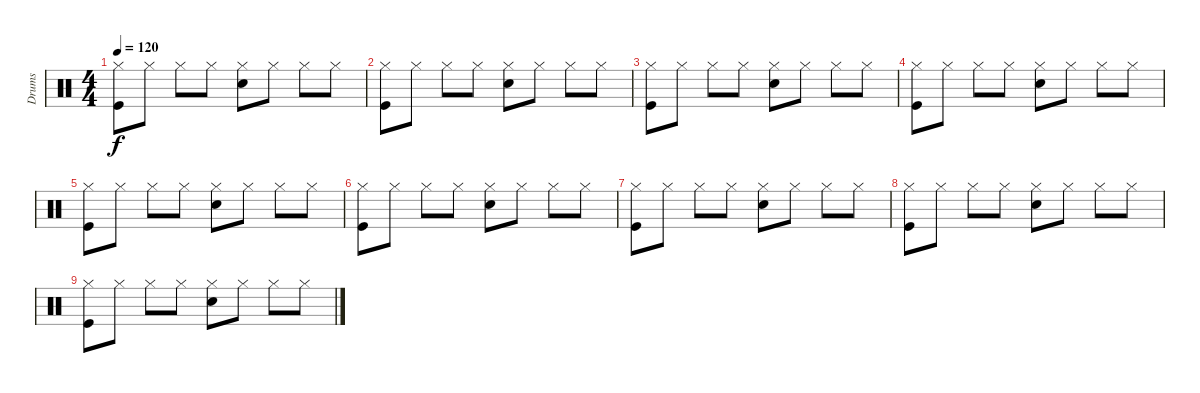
\track ("Drums" "Drums") {instrument percussion}
\staff {score}
\articulation defaults
\ts (4 4)
\tempo 120
\clef neutral
\ks c
("Hi-Hat (closed)" "Kick (hit)").8{dy f} "Hi-Hat (closed)".8 "Hi-Hat (closed)".8 "Hi-Hat (closed)".8 ("Hi-Hat (closed)" "Snare (hit) 2").8 "Hi-Hat (closed)".8 "Hi-Hat (closed)".8 "Hi-Hat (closed)".8 |
("Hi-Hat (closed)" "Kick (hit)").8 "Hi-Hat (closed)".8 "Hi-Hat (closed)".8 "Hi-Hat (closed)".8 ("Hi-Hat (closed)" "Snare (hit) 2").8 "Hi-Hat (closed)".8 "Hi-Hat (closed)".8 "Hi-Hat (closed)".8 |
("Hi-Hat (closed)" "Kick (hit)").8 "Hi-Hat (closed)".8 "Hi-Hat (closed)".8 "Hi-Hat (closed)".8 ("Hi-Hat (closed)" "Snare (hit) 2").8 "Hi-Hat (closed)".8 "Hi-Hat (closed)".8 "Hi-Hat (closed)".8 |
("Hi-Hat (closed)" "Kick (hit)").8 "Hi-Hat (closed)".8 "Hi-Hat (closed)".8 "Hi-Hat (closed)".8 ("Hi-Hat (closed)" "Snare (hit) 2").8 "Hi-Hat (closed)".8 "Hi-Hat (closed)".8 "Hi-Hat (closed)".8 |
("Hi-Hat (closed)" "Kick (hit)").8 "Hi-Hat (closed)".8 "Hi-Hat (closed)".8 "Hi-Hat (closed)".8 ("Hi-Hat (closed)" "Snare (hit) 2").8 "Hi-Hat (closed)".8 "Hi-Hat (closed)".8 "Hi-Hat (closed)".8 |
("Hi-Hat (closed)" "Kick (hit)").8 "Hi-Hat (closed)".8 "Hi-Hat (closed)".8 "Hi-Hat (closed)".8 ("Hi-Hat (closed)" "Snare (hit) 2").8 "Hi-Hat (closed)".8 "Hi-Hat (closed)".8 "Hi-Hat (closed)".8 |
("Hi-Hat (closed)" "Kick (hit)").8 "Hi-Hat (closed)".8 "Hi-Hat (closed)".8 "Hi-Hat (closed)".8 ("Hi-Hat (closed)" "Snare (hit) 2").8 "Hi-Hat (closed)".8 "Hi-Hat (closed)".8 "Hi-Hat (closed)".8 |
("Hi-Hat (closed)" "Kick (hit)").8 "Hi-Hat (closed)".8 "Hi-Hat (closed)".8 "Hi-Hat (closed)".8 ("Hi-Hat (closed)" "Snare (hit) 2").8 "Hi-Hat (closed)".8 "Hi-Hat (closed)".8 "Hi-Hat (closed)".8 |
("Hi-Hat (closed)" "Kick (hit)").8 "Hi-Hat (closed)".8 "Hi-Hat (closed)".8 "Hi-Hat (closed)".8 ("Hi-Hat (closed)" "Snare (hit) 2").8 "Hi-Hat (closed)".8 "Hi-Hat (closed)".8 "Hi-Hat (closed)".8
